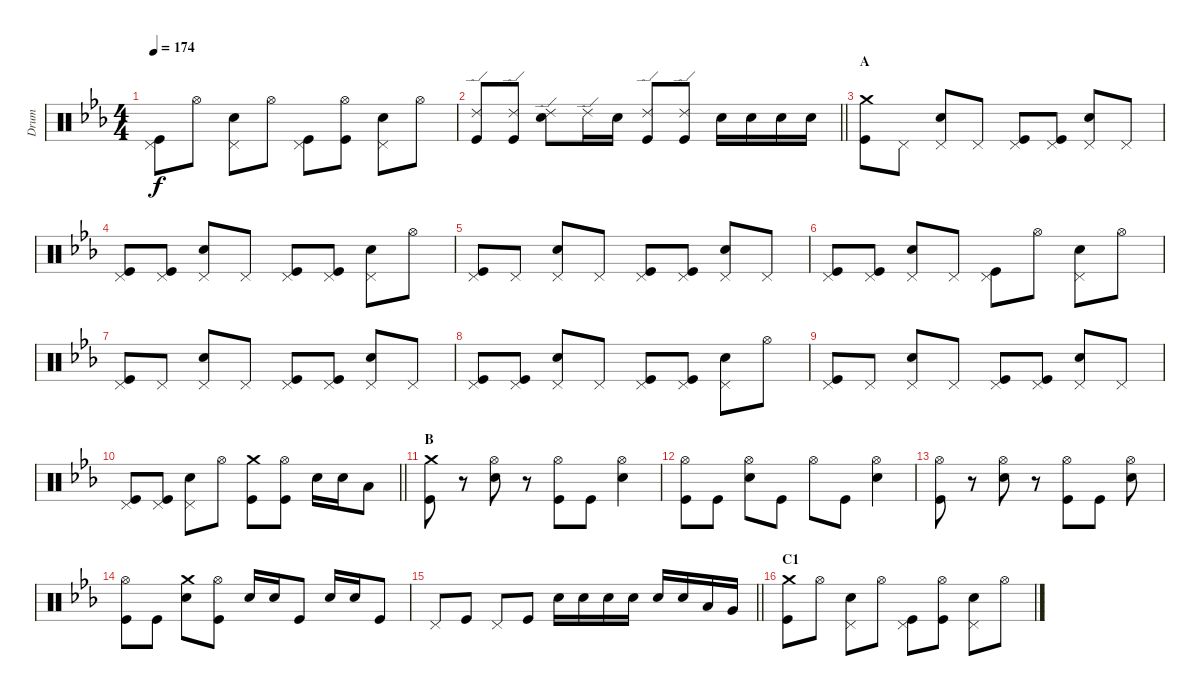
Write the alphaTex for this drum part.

\track ("Drum" "Drum") {instrument percussion}
\staff {score}
\articulation defaults
\ts (4 4)
\tempo 174
\clef neutral
\ks eb
("Pedal Hi-Hat (hit)" "Kick (hit)").8{dy f} "Hi-Hat (open)".8 ("Pedal Hi-Hat (hit)" "Snare (hit) 2").8 "Hi-Hat (open)".8 ("Pedal Hi-Hat (hit)" "Kick (hit)").8 ("Hi-Hat (open)" "Kick (hit)").8 ("Pedal Hi-Hat (hit)" "Snare (hit) 2").8 "Hi-Hat (open)".8 |
\barLineRight lightlight
("Ride (edge) 2" "Kick (hit)").8 ("Ride (edge) 2" "Kick (hit)").8 ("Ride (edge) 2" "Snare (hit) 2").8 "Ride (edge) 2".16 "Snare (hit) 2".16 ("Ride (edge) 2" "Kick (hit)").8 ("Ride (edge) 2" "Kick (hit)").8 "Snare (hit) 2".16 "Snare (hit) 2".16 "Snare (hit) 2".16 "Snare (hit) 2".16 |
\section ("" "A")
("Crash medium (hit)" "Kick (hit)").8 "Pedal Hi-Hat (hit)".8 ("Pedal Hi-Hat (hit)" "Snare (hit) 2").8 "Pedal Hi-Hat (hit)".8 ("Pedal Hi-Hat (hit)" "Kick (hit)").8 ("Pedal Hi-Hat (hit)" "Kick (hit)").8 ("Pedal Hi-Hat (hit)" "Snare (hit) 2").8 "Pedal Hi-Hat (hit)".8 |
("Pedal Hi-Hat (hit)" "Kick (hit)").8 ("Pedal Hi-Hat (hit)" "Kick (hit)").8 ("Pedal Hi-Hat (hit)" "Snare (hit) 2").8 "Pedal Hi-Hat (hit)".8 ("Pedal Hi-Hat (hit)" "Kick (hit)").8 ("Pedal Hi-Hat (hit)" "Kick (hit)").8 ("Pedal Hi-Hat (hit)" "Snare (hit) 2").8 "Hi-Hat (open)".8 |
("Pedal Hi-Hat (hit)" "Kick (hit)").8 "Pedal Hi-Hat (hit)".8 ("Pedal Hi-Hat (hit)" "Snare (hit) 2").8 "Pedal Hi-Hat (hit)".8 ("Pedal Hi-Hat (hit)" "Kick (hit)").8 ("Pedal Hi-Hat (hit)" "Kick (hit)").8 ("Pedal Hi-Hat (hit)" "Snare (hit) 2").8 "Pedal Hi-Hat (hit)".8 |
("Pedal Hi-Hat (hit)" "Kick (hit)").8 ("Pedal Hi-Hat (hit)" "Kick (hit)").8 ("Pedal Hi-Hat (hit)" "Snare (hit) 2").8 "Pedal Hi-Hat (hit)".8 ("Pedal Hi-Hat (hit)" "Kick (hit)").8 "Hi-Hat (open)".8 ("Pedal Hi-Hat (hit)" "Snare (hit) 2").8 "Hi-Hat (open)".8 |
("Pedal Hi-Hat (hit)" "Kick (hit)").8 "Pedal Hi-Hat (hit)".8 ("Pedal Hi-Hat (hit)" "Snare (hit) 2").8 "Pedal Hi-Hat (hit)".8 ("Pedal Hi-Hat (hit)" "Kick (hit)").8 ("Pedal Hi-Hat (hit)" "Kick (hit)").8 ("Pedal Hi-Hat (hit)" "Snare (hit) 2").8 "Pedal Hi-Hat (hit)".8 |
("Pedal Hi-Hat (hit)" "Kick (hit)").8 ("Pedal Hi-Hat (hit)" "Kick (hit)").8 ("Pedal Hi-Hat (hit)" "Snare (hit) 2").8 "Pedal Hi-Hat (hit)".8 ("Pedal Hi-Hat (hit)" "Kick (hit)").8 ("Pedal Hi-Hat (hit)" "Kick (hit)").8 ("Pedal Hi-Hat (hit)" "Snare (hit) 2").8 "Hi-Hat (open)".8 |
("Pedal Hi-Hat (hit)" "Kick (hit)").8 "Pedal Hi-Hat (hit)".8 ("Pedal Hi-Hat (hit)" "Snare (hit) 2").8 "Pedal Hi-Hat (hit)".8 ("Pedal Hi-Hat (hit)" "Kick (hit)").8 ("Pedal Hi-Hat (hit)" "Kick (hit)").8 ("Pedal Hi-Hat (hit)" "Snare (hit) 2").8 "Pedal Hi-Hat (hit)".8 |
\barLineRight lightlight
("Pedal Hi-Hat (hit)" "Kick (hit)").8 ("Pedal Hi-Hat (hit)" "Kick (hit)").8 ("Pedal Hi-Hat (hit)" "Snare (hit) 2").8 "Hi-Hat (open)".8 ("Crash medium (hit)" "Kick (hit)").8 ("Hi-Hat (open)" "Kick (hit)").8 "Snare (hit) 2".16 "Snare (hit) 2".16 "Low Tom (hit)".8 |
\section ("" "B")
("Crash medium (hit)" "Kick (hit)").8 r.8 ("Hi-Hat (open)" "Snare (hit) 2").8 r.8 ("Hi-Hat (open)" "Kick (hit)").8 "Kick (hit)".8 ("Hi-Hat (open)" "Snare (hit) 2").4 |
("Hi-Hat (open)" "Kick (hit)").8 "Kick (hit)".8 ("Hi-Hat (open)" "Snare (hit) 2").8 "Kick (hit)".8 "Hi-Hat (open)".8 "Kick (hit)".8 ("Hi-Hat (open)" "Snare (hit) 2").4 |
("Hi-Hat (open)" "Kick (hit)").8 r.8 ("Hi-Hat (open)" "Snare (hit) 2").8 r.8 ("Hi-Hat (open)" "Kick (hit)").8 "Kick (hit)".8 ("Hi-Hat (open)" "Snare (hit) 2").8 |
("Hi-Hat (open)" "Kick (hit)").8 "Kick (hit)".8 ("Crash medium (hit)" "Snare (hit) 2").8 ("Hi-Hat (open)" "Kick (hit)").8 "Snare (hit) 2".16 "Snare (hit) 2".16 "Kick (hit)".8 "Snare (hit) 2".16 "Snare (hit) 2".16 "Kick (hit)".8 |
\barLineRight lightlight "Pedal Hi-Hat (hit)".8 "Kick (hit)".8 "Pedal Hi-Hat (hit)".8 "Kick (hit)".8 "Snare (hit) 2".16 "Snare (hit) 2".16 "Snare (hit) 2".16 "Snare (hit) 2".16 "Snare (hit) 2".16 "Snare (hit) 2".16 "Low Tom (hit)".16 "Very Low Tom (hit)".16
|
\section ("" "C1")
("Crash medium (hit)" "Kick (hit)").8 "Hi-Hat (open)".8 ("Pedal Hi-Hat (hit)" "Snare (hit) 2").8 "Hi-Hat (open)".8 ("Pedal Hi-Hat (hit)" "Kick (hit)").8 ("Hi-Hat (open)" "Kick (hit)").8 ("Pedal Hi-Hat (hit)" "Snare (hit) 2").8 "Hi-Hat (open)".8
